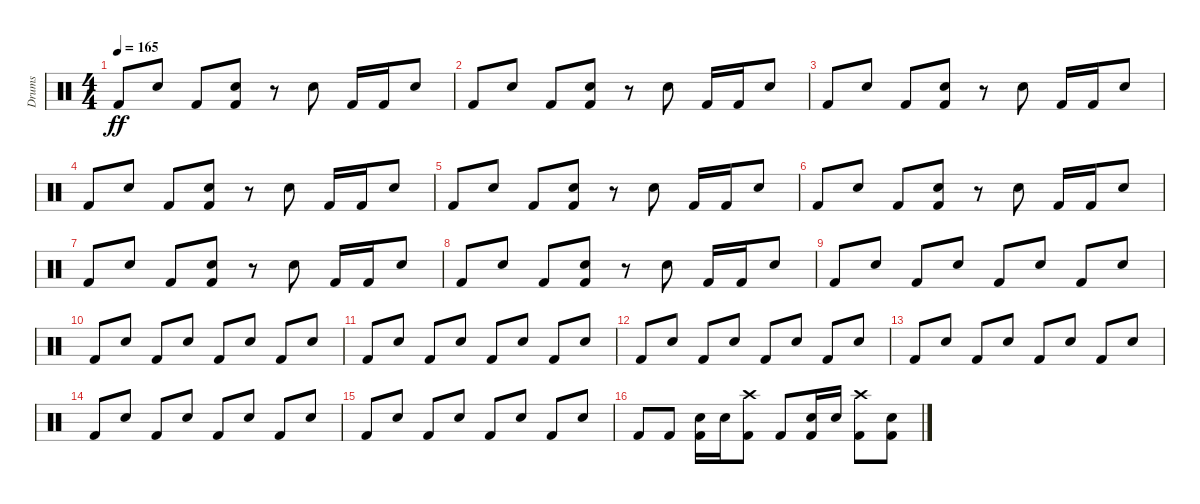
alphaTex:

\track ("Drums" "Drums") {instrument percussion}
\staff {score}
\articulation defaults
\ts (4 4)
\tempo 165
\clef neutral
\ks c "Kick (hit) 2".8{dy ff} "Snare (hit) 2".8 "Kick (hit) 2".8
("Snare (hit) 2" "Kick (hit) 2").8 r.8 "Snare (hit) 2".8 "Kick (hit) 2".16 "Kick (hit) 2".16 "Snare (hit) 2".8 |
"Kick (hit) 2".8 "Snare (hit) 2".8 "Kick (hit) 2".8 ("Kick (hit) 2" "Snare (hit) 2").8 r.8 "Snare (hit) 2".8 "Kick (hit) 2".16 "Kick (hit) 2".16 "Snare (hit) 2".8 |
"Kick (hit) 2".8 "Snare (hit) 2".8 "Kick (hit) 2".8 ("Snare (hit) 2" "Kick (hit) 2").8 r.8 "Snare (hit) 2".8 "Kick (hit) 2".16 "Kick (hit) 2".16 "Snare (hit) 2".8 |
"Kick (hit) 2".8 "Snare (hit) 2".8 "Kick (hit) 2".8 ("Kick (hit) 2" "Snare (hit) 2").8 r.8 "Snare (hit) 2".8 "Kick (hit) 2".16 "Kick (hit) 2".16 "Snare (hit) 2".8 |
"Kick (hit) 2".8 "Snare (hit) 2".8 "Kick (hit) 2".8 ("Snare (hit) 2" "Kick (hit) 2").8 r.8 "Snare (hit) 2".8 "Kick (hit) 2".16 "Kick (hit) 2".16 "Snare (hit) 2".8 |
"Kick (hit) 2".8 "Snare (hit) 2".8 "Kick (hit) 2".8 ("Kick (hit) 2" "Snare (hit) 2").8 r.8 "Snare (hit) 2".8 "Kick (hit) 2".16 "Kick (hit) 2".16 "Snare (hit) 2".8 |
"Kick (hit) 2".8 "Snare (hit) 2".8 "Kick (hit) 2".8 ("Snare (hit) 2" "Kick (hit) 2").8 r.8 "Snare (hit) 2".8 "Kick (hit) 2".16 "Kick (hit) 2".16 "Snare (hit) 2".8 |
"Kick (hit) 2".8 "Snare (hit) 2".8 "Kick (hit) 2".8 ("Kick (hit) 2" "Snare (hit) 2").8 r.8 "Snare (hit) 2".8 "Kick (hit) 2".16 "Kick (hit) 2".16 "Snare (hit) 2".8 |
"Kick (hit) 2".8 "Snare (hit) 2".8 "Kick (hit) 2".8 "Snare (hit) 2".8 "Kick (hit) 2".8 "Snare (hit) 2".8 "Kick (hit) 2".8 "Snare (hit) 2".8 |
"Kick (hit) 2".8 "Snare (hit) 2".8 "Kick (hit) 2".8 "Snare (hit) 2".8 "Kick (hit) 2".8 "Snare (hit) 2".8 "Kick (hit) 2".8 "Snare (hit) 2".8 |
"Kick (hit) 2".8 "Snare (hit) 2".8 "Kick (hit) 2".8 "Snare (hit) 2".8 "Kick (hit) 2".8 "Snare (hit) 2".8 "Kick (hit) 2".8 "Snare (hit) 2".8 |
"Kick (hit) 2".8 "Snare (hit) 2".8 "Kick (hit) 2".8 "Snare (hit) 2".8 "Kick (hit) 2".8 "Snare (hit) 2".8 "Kick (hit) 2".8 "Snare (hit) 2".8 |
"Kick (hit) 2".8 "Snare (hit) 2".8 "Kick (hit) 2".8 "Snare (hit) 2".8 "Kick (hit) 2".8 "Snare (hit) 2".8 "Kick (hit) 2".8 "Snare (hit) 2".8 |
"Kick (hit) 2".8 "Snare (hit) 2".8 "Kick (hit) 2".8 "Snare (hit) 2".8 "Kick (hit) 2".8 "Snare (hit) 2".8 "Kick (hit) 2".8 "Snare (hit) 2".8 |
"Kick (hit) 2".8 "Snare (hit) 2".8 "Kick (hit) 2".8 "Snare (hit) 2".8 "Kick (hit) 2".8 "Snare (hit) 2".8 "Kick (hit) 2".8 "Snare (hit) 2".8 |
"Kick (hit) 2".8 "Kick (hit) 2".8 ("Kick (hit) 2" "Snare (hit) 2").16 "Snare (hit) 2".16 ("Kick (hit) 2" "Crash high (hit)").8 "Kick (hit) 2".8 ("Kick (hit) 2" "Snare (hit) 2").16 "Snare (hit) 2".16 ("Kick (hit) 2" "Crash high (hit)").8 ("Kick (hit) 2" "Snare (hit) 2").8
